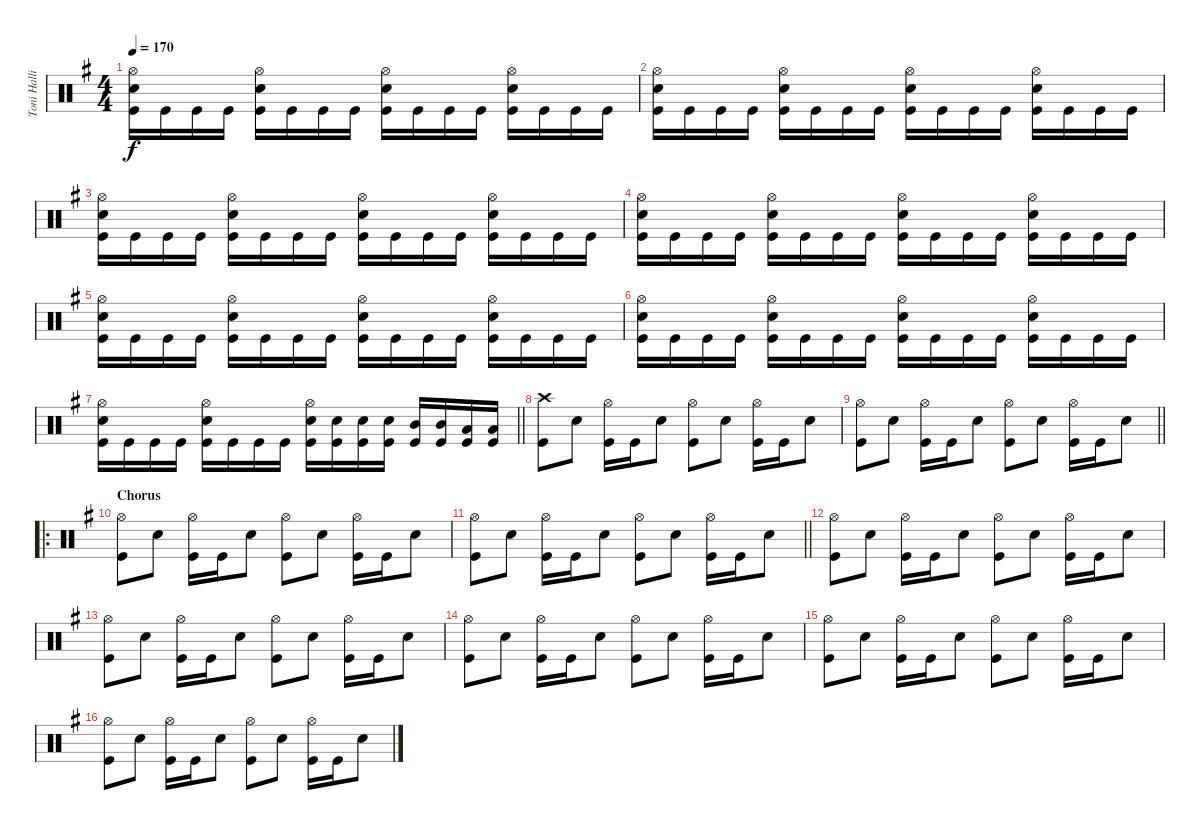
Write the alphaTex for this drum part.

\track ("Toni Hallio" "Toni Halli") {instrument percussion}
\staff {score}
\articulation defaults
\ts (4 4)
\tempo 170
\clef neutral
\ks g
("Hi-Hat (open)" "Snare (hit) 2" "Kick (hit)").16{dy f} "Kick (hit)".16 "Kick (hit)".16 "Kick (hit)".16 ("Hi-Hat (open)" "Snare (hit) 2" "Kick (hit)").16 "Kick (hit)".16 "Kick (hit)".16 "Kick (hit)".16 ("Hi-Hat (open)" "Snare (hit) 2" "Kick (hit)").16 "Kick (hit)".16 "Kick (hit)".16 "Kick (hit)".16 ("Hi-Hat (open)" "Snare (hit) 2" "Kick (hit)").16 "Kick (hit)".16 "Kick (hit)".16 "Kick (hit)".16 |
("Hi-Hat (open)" "Snare (hit) 2" "Kick (hit)").16 "Kick (hit)".16 "Kick (hit)".16 "Kick (hit)".16 ("Hi-Hat (open)" "Snare (hit) 2" "Kick (hit)").16 "Kick (hit)".16 "Kick (hit)".16 "Kick (hit)".16 ("Hi-Hat (open)" "Snare (hit) 2" "Kick (hit)").16 "Kick (hit)".16 "Kick (hit)".16 "Kick (hit)".16 ("Hi-Hat (open)" "Snare (hit) 2" "Kick (hit)").16 "Kick (hit)".16 "Kick (hit)".16 "Kick (hit)".16 |
("Hi-Hat (open)" "Snare (hit) 2" "Kick (hit)").16 "Kick (hit)".16 "Kick (hit)".16 "Kick (hit)".16 ("Hi-Hat (open)" "Snare (hit) 2" "Kick (hit)").16 "Kick (hit)".16 "Kick (hit)".16 "Kick (hit)".16 ("Hi-Hat (open)" "Snare (hit) 2" "Kick (hit)").16 "Kick (hit)".16 "Kick (hit)".16 "Kick (hit)".16 ("Hi-Hat (open)" "Snare (hit) 2" "Kick (hit)").16 "Kick (hit)".16 "Kick (hit)".16 "Kick (hit)".16 |
("Hi-Hat (open)" "Snare (hit) 2" "Kick (hit)").16 "Kick (hit)".16 "Kick (hit)".16 "Kick (hit)".16 ("Hi-Hat (open)" "Snare (hit) 2" "Kick (hit)").16 "Kick (hit)".16 "Kick (hit)".16 "Kick (hit)".16 ("Hi-Hat (open)" "Snare (hit) 2" "Kick (hit)").16 "Kick (hit)".16 "Kick (hit)".16 "Kick (hit)".16 ("Hi-Hat (open)" "Snare (hit) 2" "Kick (hit)").16 "Kick (hit)".16 "Kick (hit)".16 "Kick (hit)".16 |
("Hi-Hat (open)" "Snare (hit) 2" "Kick (hit)").16 "Kick (hit)".16 "Kick (hit)".16 "Kick (hit)".16 ("Hi-Hat (open)" "Snare (hit) 2" "Kick (hit)").16 "Kick (hit)".16 "Kick (hit)".16 "Kick (hit)".16 ("Hi-Hat (open)" "Snare (hit) 2" "Kick (hit)").16 "Kick (hit)".16 "Kick (hit)".16 "Kick (hit)".16 ("Hi-Hat (open)" "Snare (hit) 2" "Kick (hit)").16 "Kick (hit)".16 "Kick (hit)".16 "Kick (hit)".16 |
("Hi-Hat (open)" "Snare (hit) 2" "Kick (hit)").16 "Kick (hit)".16 "Kick (hit)".16 "Kick (hit)".16 ("Hi-Hat (open)" "Snare (hit) 2" "Kick (hit)").16 "Kick (hit)".16 "Kick (hit)".16 "Kick (hit)".16 ("Hi-Hat (open)" "Snare (hit) 2" "Kick (hit)").16 "Kick (hit)".16 "Kick (hit)".16 "Kick (hit)".16 ("Hi-Hat (open)" "Snare (hit) 2" "Kick (hit)").16 "Kick (hit)".16 "Kick (hit)".16 "Kick (hit)".16 |
\barLineRight lightlight
("Hi-Hat (open)" "Snare (hit) 2" "Kick (hit)").16 "Kick (hit)".16 "Kick (hit)".16 "Kick (hit)".16 ("Hi-Hat (open)" "Snare (hit) 2" "Kick (hit)").16 "Kick (hit)".16 "Kick (hit)".16 "Kick (hit)".16 ("Hi-Hat (open)" "Snare (hit) 2" "Kick (hit)").16 ("Snare (hit) 2" "Kick (hit)").16 ("Snare (hit) 2" "Kick (hit)").16 ("Snare (hit) 2" "Kick (hit)").16 ("Mid Tom (hit)" "Kick (hit)").16 ("Mid Tom (hit)" "Kick (hit)").16 ("Low Tom (hit)" "Kick (hit)").16 ("Low Tom (hit)" "Kick (hit)").16 |
\section ("" "")
("Crash high (hit)" "Kick (hit)").8 "Snare (hit) 2".8 ("Hi-Hat (open)" "Kick (hit)").16 "Kick (hit)".16 "Snare (hit) 2".8 ("Hi-Hat (open)" "Kick (hit)").8 "Snare (hit) 2".8 ("Hi-Hat (open)" "Kick (hit)").16 "Kick (hit)".16 "Snare (hit) 2".8 |
\barLineRight lightlight
("Hi-Hat (open)" "Kick (hit)").8 "Snare (hit) 2".8 ("Hi-Hat (open)" "Kick (hit)").16 "Kick (hit)".16 "Snare (hit) 2".8 ("Hi-Hat (open)" "Kick (hit)").8 "Snare (hit) 2".8 ("Hi-Hat (open)" "Kick (hit)").16 "Kick (hit)".16 "Snare (hit) 2".8 |
\ro
\section ("" "Chorus")
("Hi-Hat (open)" "Kick (hit)").8 "Snare (hit) 2".8 ("Hi-Hat (open)" "Kick (hit)").16 "Kick (hit)".16 "Snare (hit) 2".8 ("Hi-Hat (open)" "Kick (hit)").8 "Snare (hit) 2".8 ("Hi-Hat (open)" "Kick (hit)").16 "Kick (hit)".16 "Snare (hit) 2".8 |
\barLineRight lightlight
("Hi-Hat (open)" "Kick (hit)").8 "Snare (hit) 2".8 ("Hi-Hat (open)" "Kick (hit)").16 "Kick (hit)".16 "Snare (hit) 2".8 ("Hi-Hat (open)" "Kick (hit)").8 "Snare (hit) 2".8 ("Hi-Hat (open)" "Kick (hit)").16 "Kick (hit)".16 "Snare (hit) 2".8 |
\section ("" "")
("Hi-Hat (open)" "Kick (hit)").8 "Snare (hit) 2".8 ("Hi-Hat (open)" "Kick (hit)").16 "Kick (hit)".16 "Snare (hit) 2".8 ("Hi-Hat (open)" "Kick (hit)").8 "Snare (hit) 2".8 ("Hi-Hat (open)" "Kick (hit)").16 "Kick (hit)".16 "Snare (hit) 2".8 |
("Hi-Hat (open)" "Kick (hit)").8 "Snare (hit) 2".8 ("Hi-Hat (open)" "Kick (hit)").16 "Kick (hit)".16 "Snare (hit) 2".8 ("Hi-Hat (open)" "Kick (hit)").8 "Snare (hit) 2".8 ("Hi-Hat (open)" "Kick (hit)").16 "Kick (hit)".16 "Snare (hit) 2".8 |
("Hi-Hat (open)" "Kick (hit)").8 "Snare (hit) 2".8 ("Hi-Hat (open)" "Kick (hit)").16 "Kick (hit)".16 "Snare (hit) 2".8 ("Hi-Hat (open)" "Kick (hit)").8 "Snare (hit) 2".8 ("Hi-Hat (open)" "Kick (hit)").16 "Kick (hit)".16 "Snare (hit) 2".8 |
("Hi-Hat (open)" "Kick (hit)").8 "Snare (hit) 2".8 ("Hi-Hat (open)" "Kick (hit)").16 "Kick (hit)".16 "Snare (hit) 2".8 ("Hi-Hat (open)" "Kick (hit)").8 "Snare (hit) 2".8 ("Hi-Hat (open)" "Kick (hit)").16 "Kick (hit)".16 "Snare (hit) 2".8 |
("Hi-Hat (open)" "Kick (hit)").8 "Snare (hit) 2".8 ("Hi-Hat (open)" "Kick (hit)").16 "Kick (hit)".16 "Snare (hit) 2".8 ("Hi-Hat (open)" "Kick (hit)").8 "Snare (hit) 2".8 ("Hi-Hat (open)" "Kick (hit)").16 "Kick (hit)".16 "Snare (hit) 2".8
